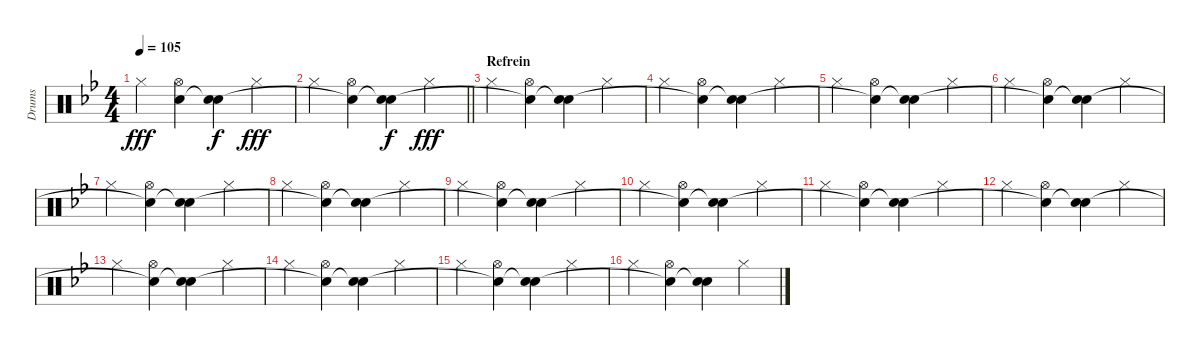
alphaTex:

\track ("Drums" "Drums") {instrument percussion}
\staff {score}
\articulation defaults
\ts (4 4)
\tempo 105
\clef neutral
\ks bb "Hi-Hat (closed)".4{dy fff}
("Hi-Hat (open)" "Snare (hit)"{t}).4 ("Snare (hit) 2" "Snare (hit)"{t}).4{dy f} "Hi-Hat (closed)".4{dy fff} |
\barLineRight lightlight "Hi-Hat (closed)".4
("Hi-Hat (open)" "Snare (hit)"{t}).4 ("Snare (hit) 2" "Snare (hit)"{t}).4{dy f} "Hi-Hat (closed)".4{dy fff} |
\section ("" "Refrein")
"Hi-Hat (closed)".4 ("Hi-Hat (open)" "Snare (hit)"{t}).4 ("Snare (hit) 2" "Snare (hit)"{t}).4 "Hi-Hat (closed)".4 |
"Hi-Hat (closed)".4 ("Hi-Hat (open)" "Snare (hit)"{t}).4 ("Snare (hit) 2" "Snare (hit)"{t}).4 "Hi-Hat (closed)".4 |
"Hi-Hat (closed)".4 ("Hi-Hat (open)" "Snare (hit)"{t}).4 ("Snare (hit) 2" "Snare (hit)"{t}).4 "Hi-Hat (closed)".4 |
"Hi-Hat (closed)".4 ("Hi-Hat (open)" "Snare (hit)"{t}).4 ("Snare (hit) 2" "Snare (hit)"{t}).4 "Hi-Hat (closed)".4 |
"Hi-Hat (closed)".4 ("Hi-Hat (open)" "Snare (hit)"{t}).4 ("Snare (hit) 2" "Snare (hit)"{t}).4 "Hi-Hat (closed)".4 |
"Hi-Hat (closed)".4 ("Hi-Hat (open)" "Snare (hit)"{t}).4 ("Snare (hit) 2" "Snare (hit)"{t}).4 "Hi-Hat (closed)".4 |
"Hi-Hat (closed)".4 ("Hi-Hat (open)" "Snare (hit)"{t}).4 ("Snare (hit) 2" "Snare (hit)"{t}).4 "Hi-Hat (closed)".4 |
"Hi-Hat (closed)".4 ("Hi-Hat (open)" "Snare (hit)"{t}).4 ("Snare (hit) 2" "Snare (hit)"{t}).4 "Hi-Hat (closed)".4 |
"Hi-Hat (closed)".4 ("Hi-Hat (open)" "Snare (hit)"{t}).4 ("Snare (hit) 2" "Snare (hit)"{t}).4 "Hi-Hat (closed)".4 |
"Hi-Hat (closed)".4 ("Hi-Hat (open)" "Snare (hit)"{t}).4 ("Snare (hit) 2" "Snare (hit)"{t}).4 "Hi-Hat (closed)".4 |
"Hi-Hat (closed)".4 ("Hi-Hat (open)" "Snare (hit)"{t}).4 ("Snare (hit) 2" "Snare (hit)"{t}).4 "Hi-Hat (closed)".4 |
"Hi-Hat (closed)".4 ("Hi-Hat (open)" "Snare (hit)"{t}).4 ("Snare (hit) 2" "Snare (hit)"{t}).4 "Hi-Hat (closed)".4 |
"Hi-Hat (closed)".4 ("Hi-Hat (open)" "Snare (hit)"{t}).4 ("Snare (hit) 2" "Snare (hit)"{t}).4 "Hi-Hat (closed)".4 |
"Hi-Hat (closed)".4 ("Hi-Hat (open)" "Snare (hit)"{t}).4 ("Snare (hit) 2" "Snare (hit)"{t}).4 "Hi-Hat (closed)".4
